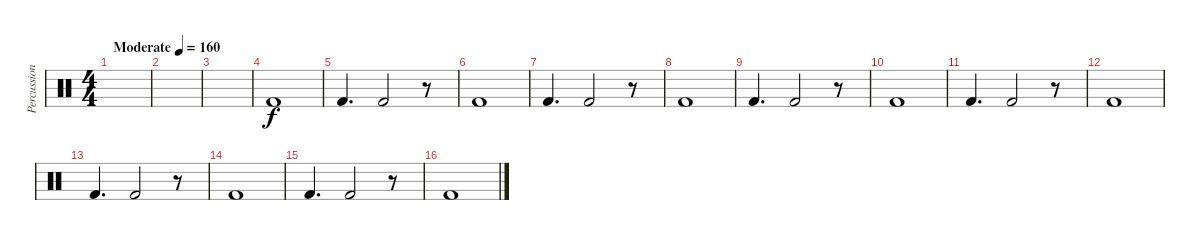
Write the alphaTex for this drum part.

\track ("Percussion" "Percussion") {instrument percussion}
\staff {score}
\articulation defaults
\ts (4 4)
\tempo (160 "Moderate")
\clef neutral
\ks c
|
|
|
"Kick (hit) 2".1 |
"Kick (hit) 2".4{d} "Kick (hit) 2".2 r.8 |
"Kick (hit) 2".1 |
"Kick (hit) 2".4{d} "Kick (hit) 2".2 r.8 |
"Kick (hit) 2".1 |
"Kick (hit) 2".4{d} "Kick (hit) 2".2 r.8 |
"Kick (hit) 2".1 |
"Kick (hit) 2".4{d} "Kick (hit) 2".2 r.8 |
"Kick (hit) 2".1 |
"Kick (hit) 2".4{d} "Kick (hit) 2".2 r.8 |
"Kick (hit) 2".1 |
"Kick (hit) 2".4{d} "Kick (hit) 2".2 r.8 |
"Kick (hit) 2".1
